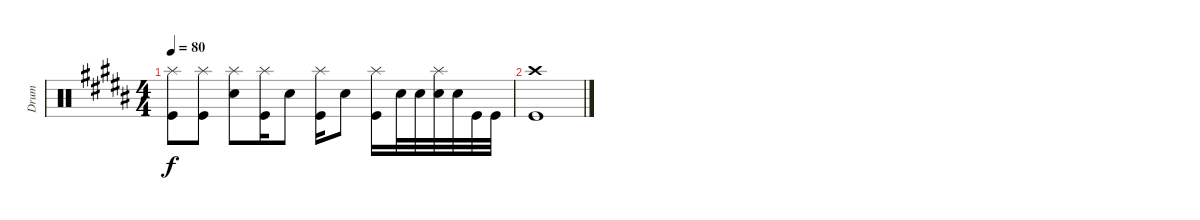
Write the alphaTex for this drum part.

\track ("Drum" "Drum") {instrument percussion}
\staff {score}
\articulation defaults
\ts (4 4)
\tempo 80
\clef neutral
\ks b
("Splash (hit)" "Kick (hit)").8{dy f} ("Splash (hit)" "Kick (hit)").8 ("Splash (hit)" "Electric Snare (hit)").8 ("Splash (hit)" "Kick (hit)").16 "Electric Snare (hit)".8 ("Splash (hit)" "Kick (hit)").16 "Electric Snare (hit)".8 ("Splash (hit)" "Kick (hit)").16 "Electric Snare (hit)".32 "Electric Snare (hit)".32 ("Splash (hit)" "Electric Snare (hit)").32 "Electric Snare (hit)".32 "Kick (hit)".32 "Kick (hit)".32 |
("Crash high (hit)" "Kick (hit)").1
